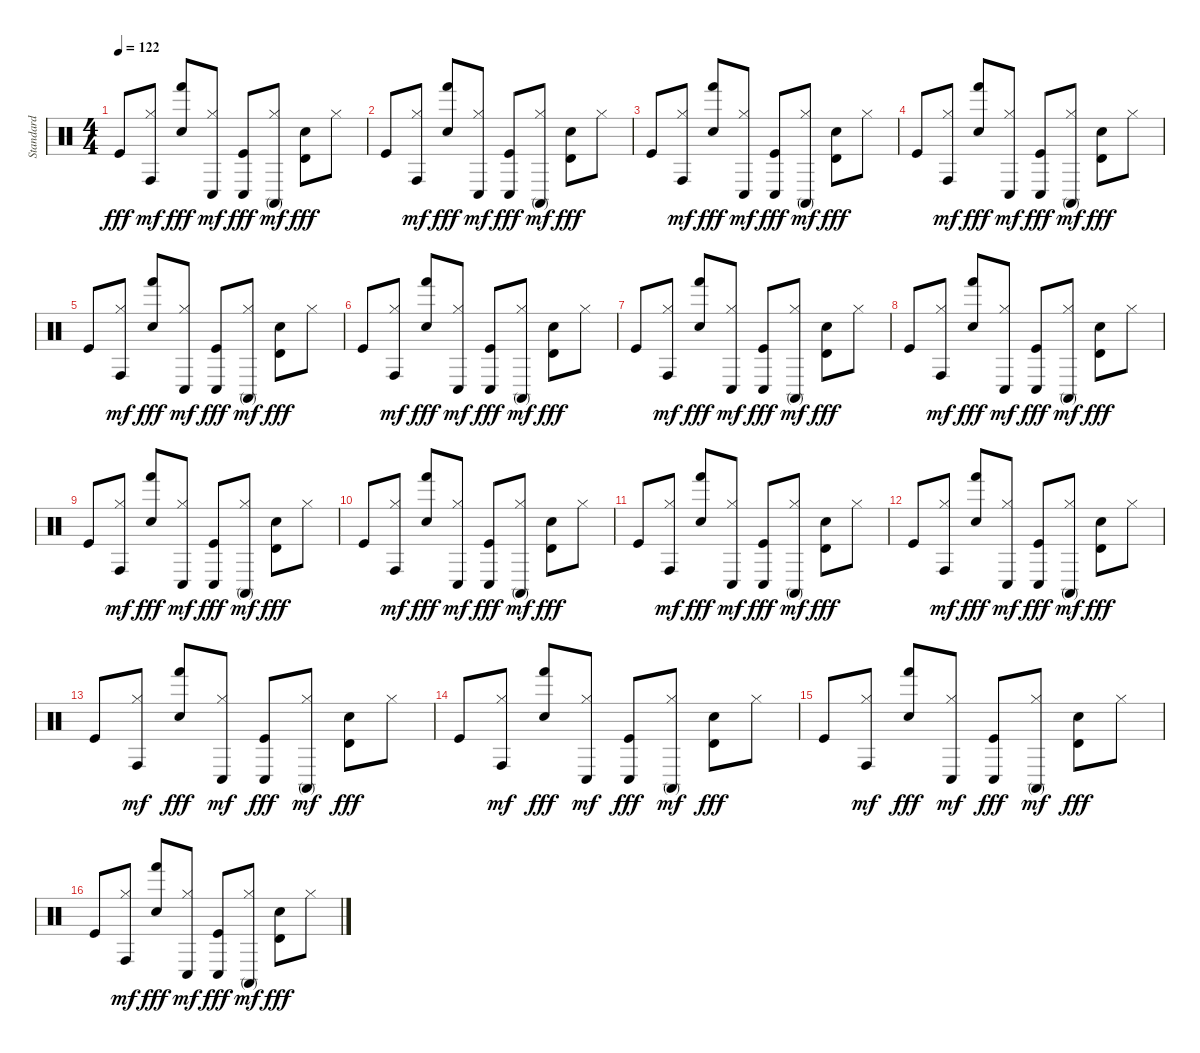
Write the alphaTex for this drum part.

\track ("Standard" "Standard") {instrument percussion}
\staff {score}
\articulation defaults
\ts (4 4)
\tempo 122
\clef neutral
\ks c "Kick (hit)".8{dy fff}
("Hi-Hat (closed)" "Conga high (hit)").8{dy mf} ("Electric Snare (hit)" "Hand (hit)").8{dy fff} ("Hi-Hat (closed)" "Conga low (hit)").8{dy mf} ("Kick (hit)" "Conga low (hit)").8{dy fff} ("Hi-Hat (closed)" "Conga high (mute)").8{dy mf} ("Electric Snare (hit)" "Timbale high (hit)").8{dy fff} "Hi-Hat (closed)".8 |
"Kick (hit)".8 ("Hi-Hat (closed)" "Conga high (hit)").8{dy mf} ("Electric Snare (hit)" "Hand (hit)").8{dy fff} ("Hi-Hat (closed)" "Conga low (hit)").8{dy mf} ("Kick (hit)" "Conga low (hit)").8{dy fff} ("Hi-Hat (closed)" "Conga high (mute)").8{dy mf} ("Electric Snare (hit)" "Timbale high (hit)").8{dy fff} "Hi-Hat (closed)".8 |
"Kick (hit)".8 ("Hi-Hat (closed)" "Conga high (hit)").8{dy mf} ("Electric Snare (hit)" "Hand (hit)").8{dy fff} ("Hi-Hat (closed)" "Conga low (hit)").8{dy mf} ("Kick (hit)" "Conga low (hit)").8{dy fff} ("Hi-Hat (closed)" "Conga high (mute)").8{dy mf} ("Electric Snare (hit)" "Timbale high (hit)").8{dy fff} "Hi-Hat (closed)".8 |
"Kick (hit)".8 ("Hi-Hat (closed)" "Conga high (hit)").8{dy mf} ("Electric Snare (hit)" "Hand (hit)").8{dy fff} ("Hi-Hat (closed)" "Conga low (hit)").8{dy mf} ("Kick (hit)" "Conga low (hit)").8{dy fff} ("Hi-Hat (closed)" "Conga high (mute)").8{dy mf} ("Electric Snare (hit)" "Timbale high (hit)").8{dy fff} "Hi-Hat (closed)".8 |
"Kick (hit)".8 ("Hi-Hat (closed)" "Conga high (hit)").8{dy mf} ("Electric Snare (hit)" "Hand (hit)").8{dy fff} ("Hi-Hat (closed)" "Conga low (hit)").8{dy mf} ("Kick (hit)" "Conga low (hit)").8{dy fff} ("Hi-Hat (closed)" "Conga high (mute)").8{dy mf} ("Electric Snare (hit)" "Timbale high (hit)").8{dy fff} "Hi-Hat (closed)".8 |
"Kick (hit)".8 ("Hi-Hat (closed)" "Conga high (hit)").8{dy mf} ("Electric Snare (hit)" "Hand (hit)").8{dy fff} ("Hi-Hat (closed)" "Conga low (hit)").8{dy mf} ("Kick (hit)" "Conga low (hit)").8{dy fff} ("Hi-Hat (closed)" "Conga high (mute)").8{dy mf} ("Electric Snare (hit)" "Timbale high (hit)").8{dy fff} "Hi-Hat (closed)".8 |
"Kick (hit)".8 ("Hi-Hat (closed)" "Conga high (hit)").8{dy mf} ("Electric Snare (hit)" "Hand (hit)").8{dy fff} ("Hi-Hat (closed)" "Conga low (hit)").8{dy mf} ("Kick (hit)" "Conga low (hit)").8{dy fff} ("Hi-Hat (closed)" "Conga high (mute)").8{dy mf} ("Electric Snare (hit)" "Timbale high (hit)").8{dy fff} "Hi-Hat (closed)".8 |
"Kick (hit)".8 ("Hi-Hat (closed)" "Conga high (hit)").8{dy mf} ("Electric Snare (hit)" "Hand (hit)").8{dy fff} ("Hi-Hat (closed)" "Conga low (hit)").8{dy mf} ("Kick (hit)" "Conga low (hit)").8{dy fff} ("Hi-Hat (closed)" "Conga high (mute)").8{dy mf} ("Electric Snare (hit)" "Timbale high (hit)").8{dy fff} "Hi-Hat (closed)".8 |
"Kick (hit)".8 ("Hi-Hat (closed)" "Conga high (hit)").8{dy mf} ("Electric Snare (hit)" "Hand (hit)").8{dy fff} ("Hi-Hat (closed)" "Conga low (hit)").8{dy mf} ("Kick (hit)" "Conga low (hit)").8{dy fff} ("Hi-Hat (closed)" "Conga high (mute)").8{dy mf} ("Electric Snare (hit)" "Timbale high (hit)").8{dy fff} "Hi-Hat (closed)".8 |
"Kick (hit)".8 ("Hi-Hat (closed)" "Conga high (hit)").8{dy mf} ("Electric Snare (hit)" "Hand (hit)").8{dy fff} ("Hi-Hat (closed)" "Conga low (hit)").8{dy mf} ("Kick (hit)" "Conga low (hit)").8{dy fff} ("Hi-Hat (closed)" "Conga high (mute)").8{dy mf} ("Electric Snare (hit)" "Timbale high (hit)").8{dy fff} "Hi-Hat (closed)".8 |
"Kick (hit)".8 ("Hi-Hat (closed)" "Conga high (hit)").8{dy mf} ("Electric Snare (hit)" "Hand (hit)").8{dy fff} ("Hi-Hat (closed)" "Conga low (hit)").8{dy mf} ("Kick (hit)" "Conga low (hit)").8{dy fff} ("Hi-Hat (closed)" "Conga high (mute)").8{dy mf} ("Electric Snare (hit)" "Timbale high (hit)").8{dy fff} "Hi-Hat (closed)".8 |
"Kick (hit)".8 ("Hi-Hat (closed)" "Conga high (hit)").8{dy mf} ("Electric Snare (hit)" "Hand (hit)").8{dy fff} ("Hi-Hat (closed)" "Conga low (hit)").8{dy mf} ("Kick (hit)" "Conga low (hit)").8{dy fff} ("Hi-Hat (closed)" "Conga high (mute)").8{dy mf} ("Electric Snare (hit)" "Timbale high (hit)").8{dy fff} "Hi-Hat (closed)".8 |
"Kick (hit)".8 ("Hi-Hat (closed)" "Conga high (hit)").8{dy mf} ("Electric Snare (hit)" "Hand (hit)").8{dy fff} ("Hi-Hat (closed)" "Conga low (hit)").8{dy mf} ("Kick (hit)" "Conga low (hit)").8{dy fff} ("Hi-Hat (closed)" "Conga high (mute)").8{dy mf} ("Electric Snare (hit)" "Timbale high (hit)").8{dy fff} "Hi-Hat (closed)".8 |
"Kick (hit)".8 ("Hi-Hat (closed)" "Conga high (hit)").8{dy mf} ("Electric Snare (hit)" "Hand (hit)").8{dy fff} ("Hi-Hat (closed)" "Conga low (hit)").8{dy mf} ("Kick (hit)" "Conga low (hit)").8{dy fff} ("Hi-Hat (closed)" "Conga high (mute)").8{dy mf} ("Electric Snare (hit)" "Timbale high (hit)").8{dy fff} "Hi-Hat (closed)".8 |
"Kick (hit)".8 ("Hi-Hat (closed)" "Conga high (hit)").8{dy mf} ("Electric Snare (hit)" "Hand (hit)").8{dy fff} ("Hi-Hat (closed)" "Conga low (hit)").8{dy mf} ("Kick (hit)" "Conga low (hit)").8{dy fff} ("Hi-Hat (closed)" "Conga high (mute)").8{dy mf} ("Electric Snare (hit)" "Timbale high (hit)").8{dy fff} "Hi-Hat (closed)".8 |
"Kick (hit)".8 ("Hi-Hat (closed)" "Conga high (hit)").8{dy mf} ("Electric Snare (hit)" "Hand (hit)").8{dy fff} ("Hi-Hat (closed)" "Conga low (hit)").8{dy mf} ("Kick (hit)" "Conga low (hit)").8{dy fff} ("Hi-Hat (closed)" "Conga high (mute)").8{dy mf} ("Electric Snare (hit)" "Timbale high (hit)").8{dy fff} "Hi-Hat (closed)".8
